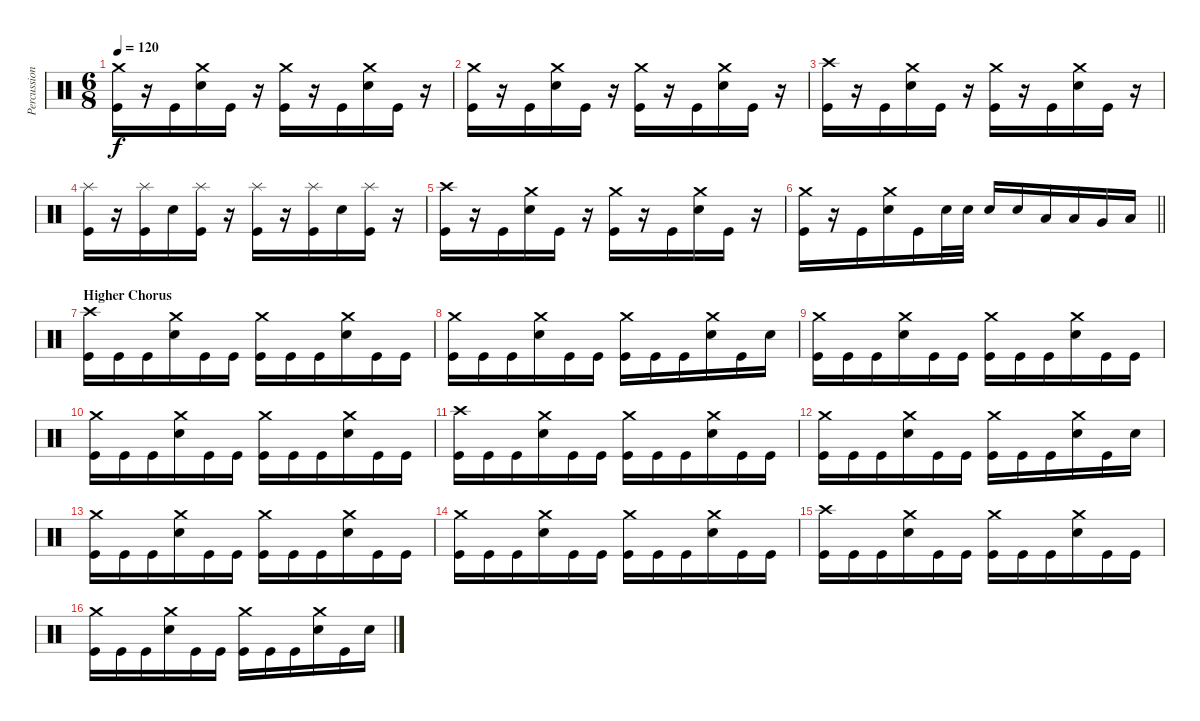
\track ("Percussion" "Percussion") {instrument percussion}
\staff {score}
\articulation defaults
\ts (6 8)
\tempo 120
\clef neutral
\ks c
("Crash medium (hit)" "Kick (hit)").16{dy f} r.16 "Kick (hit)".16 ("Crash medium (hit)" "Snare (hit) 2").16 "Kick (hit)".16 r.16 ("Crash medium (hit)" "Kick (hit)").16 r.16 "Kick (hit)".16 ("Crash medium (hit)" "Snare (hit) 2").16 "Kick (hit)".16 r.16 |
("Crash medium (hit)" "Kick (hit)").16 r.16 "Kick (hit)".16 ("Crash medium (hit)" "Snare (hit) 2").16 "Kick (hit)".16 r.16 ("Crash medium (hit)" "Kick (hit)").16 r.16 "Kick (hit)".16 ("Crash medium (hit)" "Snare (hit) 2").16 "Kick (hit)".16 r.16 |
("Crash high (hit)" "Kick (hit)").16 r.16 "Kick (hit)".16 ("Crash medium (hit)" "Snare (hit) 2").16 "Kick (hit)".16 r.16 ("Crash medium (hit)" "Kick (hit)").16 r.16 "Kick (hit)".16 ("Crash medium (hit)" "Snare (hit) 2").16 "Kick (hit)".16 r.16 |
("Splash (hit)" "Kick (hit)").16 r.16 ("Splash (hit)" "Kick (hit)").16 "Snare (hit) 2".16 ("Splash (hit)" "Kick (hit)").16 r.16 ("Splash (hit)" "Kick (hit)").16 r.16 ("Splash (hit)" "Kick (hit)").16 "Snare (hit) 2".16 ("Splash (hit)" "Kick (hit)").16 r.16 |
("Crash high (hit)" "Kick (hit)").16 r.16 "Kick (hit)".16 ("Crash medium (hit)" "Snare (hit) 2").16 "Kick (hit)".16 r.16 ("Crash medium (hit)" "Kick (hit)").16 r.16 "Kick (hit)".16 ("Crash medium (hit)" "Snare (hit) 2").16 "Kick (hit)".16 r.16 |
\barLineRight lightlight
("Crash medium (hit)" "Kick (hit)").16 r.16 "Kick (hit)".16 ("Crash medium (hit)" "Snare (hit) 2").16 "Kick (hit)".16 "Snare (hit) 2".32 "Snare (hit) 2".32 "Snare (hit) 2".16 "Snare (hit) 2".16 "Low Tom (hit)".16 "Low Tom (hit)".16 "Very Low Tom (hit)".16 "Low Floor Tom (hit)".16 |
\section ("" "Higher Chorus")
("Crash high (hit)" "Kick (hit)").16 "Kick (hit)".16 "Kick (hit)".16 ("Crash medium (hit)" "Snare (hit) 2").16 "Kick (hit)".16 "Kick (hit)".16 ("Crash medium (hit)" "Kick (hit)").16 "Kick (hit)".16 "Kick (hit)".16 ("Crash medium (hit)" "Snare (hit) 2").16 "Kick (hit)".16 "Kick (hit)".16 |
("Crash medium (hit)" "Kick (hit)").16 "Kick (hit)".16 "Kick (hit)".16 ("Crash medium (hit)" "Snare (hit) 2").16 "Kick (hit)".16 "Kick (hit)".16 ("Crash medium (hit)" "Kick (hit)").16 "Kick (hit)".16 "Kick (hit)".16 ("Crash medium (hit)" "Snare (hit) 2").16 "Kick (hit)".16 "Snare (hit) 2".16 |
("Crash medium (hit)" "Kick (hit)").16 "Kick (hit)".16 "Kick (hit)".16 ("Crash medium (hit)" "Snare (hit) 2").16 "Kick (hit)".16 "Kick (hit)".16 ("Crash medium (hit)" "Kick (hit)").16 "Kick (hit)".16 "Kick (hit)".16 ("Crash medium (hit)" "Snare (hit) 2").16 "Kick (hit)".16 "Kick (hit)".16 |
("Crash medium (hit)" "Kick (hit)").16 "Kick (hit)".16 "Kick (hit)".16 ("Crash medium (hit)" "Snare (hit) 2").16 "Kick (hit)".16 "Kick (hit)".16 ("Crash medium (hit)" "Kick (hit)").16 "Kick (hit)".16 "Kick (hit)".16 ("Crash medium (hit)" "Snare (hit) 2").16 "Kick (hit)".16 "Kick (hit)".16 |
("Crash high (hit)" "Kick (hit)").16 "Kick (hit)".16 "Kick (hit)".16 ("Crash medium (hit)" "Snare (hit) 2").16 "Kick (hit)".16 "Kick (hit)".16 ("Crash medium (hit)" "Kick (hit)").16 "Kick (hit)".16 "Kick (hit)".16 ("Crash medium (hit)" "Snare (hit) 2").16 "Kick (hit)".16 "Kick (hit)".16 |
("Crash medium (hit)" "Kick (hit)").16 "Kick (hit)".16 "Kick (hit)".16 ("Crash medium (hit)" "Snare (hit) 2").16 "Kick (hit)".16 "Kick (hit)".16 ("Crash medium (hit)" "Kick (hit)").16 "Kick (hit)".16 "Kick (hit)".16 ("Crash medium (hit)" "Snare (hit) 2").16 "Kick (hit)".16 "Snare (hit) 2".16 |
("Crash medium (hit)" "Kick (hit)").16 "Kick (hit)".16 "Kick (hit)".16 ("Crash medium (hit)" "Snare (hit) 2").16 "Kick (hit)".16 "Kick (hit)".16 ("Crash medium (hit)" "Kick (hit)").16 "Kick (hit)".16 "Kick (hit)".16 ("Crash medium (hit)" "Snare (hit) 2").16 "Kick (hit)".16 "Kick (hit)".16 |
("Crash medium (hit)" "Kick (hit)").16 "Kick (hit)".16 "Kick (hit)".16 ("Crash medium (hit)" "Snare (hit) 2").16 "Kick (hit)".16 "Kick (hit)".16 ("Crash medium (hit)" "Kick (hit)").16 "Kick (hit)".16 "Kick (hit)".16 ("Crash medium (hit)" "Snare (hit) 2").16 "Kick (hit)".16 "Kick (hit)".16 |
("Crash high (hit)" "Kick (hit)").16 "Kick (hit)".16 "Kick (hit)".16 ("Crash medium (hit)" "Snare (hit) 2").16 "Kick (hit)".16 "Kick (hit)".16 ("Crash medium (hit)" "Kick (hit)").16 "Kick (hit)".16 "Kick (hit)".16 ("Crash medium (hit)" "Snare (hit) 2").16 "Kick (hit)".16 "Kick (hit)".16 |
("Crash medium (hit)" "Kick (hit)").16 "Kick (hit)".16 "Kick (hit)".16 ("Crash medium (hit)" "Snare (hit) 2").16 "Kick (hit)".16 "Kick (hit)".16 ("Crash medium (hit)" "Kick (hit)").16 "Kick (hit)".16 "Kick (hit)".16 ("Crash medium (hit)" "Snare (hit) 2").16 "Kick (hit)".16 "Snare (hit) 2".16
